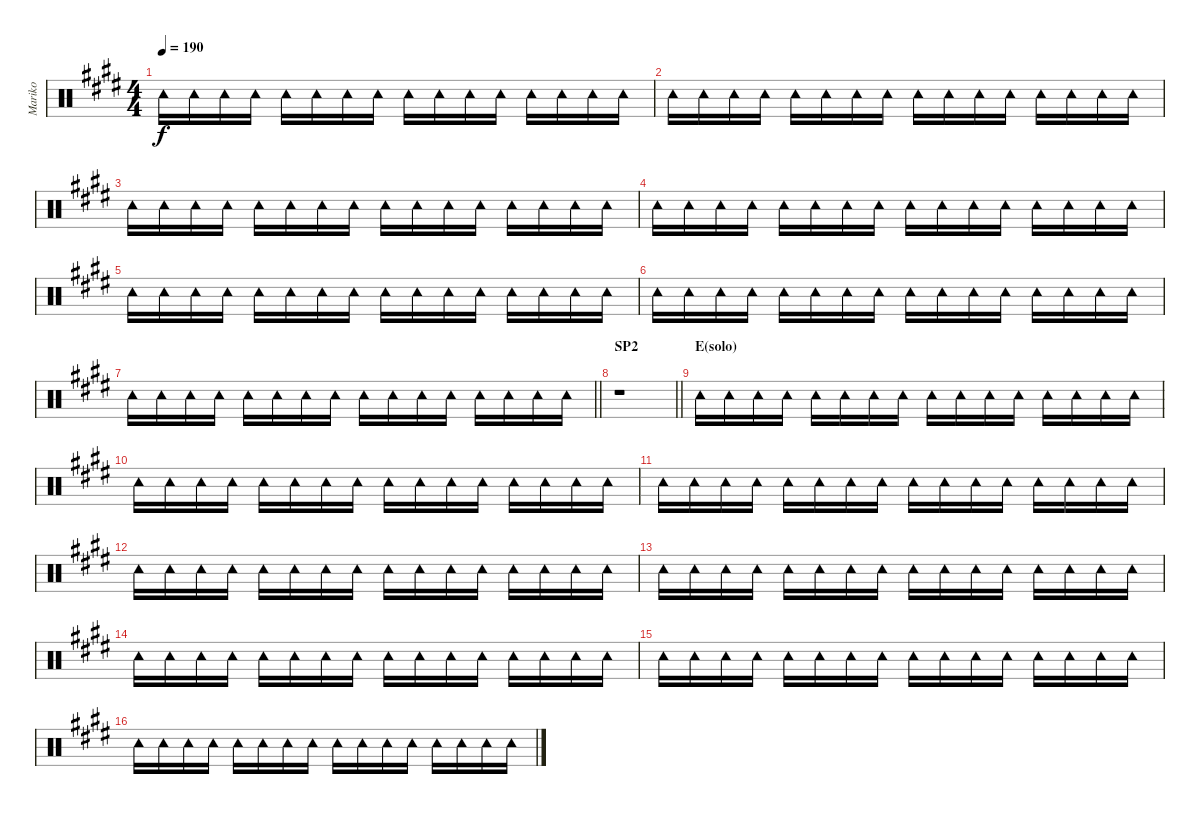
\track ("Mariko" "Mariko") {mute instrument percussion}
\staff {score}
\articulation defaults
\ts (4 4)
\tempo 190
\clef neutral
\ks e "Tambourine (hit)".16{dy f} "Tambourine (hit)".16 "Tambourine (hit)".16 "Tambourine (hit)".16 "Tambourine (hit)".16 "Tambourine (hit)".16 "Tambourine (hit)".16 "Tambourine (hit)".16 "Tambourine (hit)".16 "Tambourine (hit)".16 "Tambourine (hit)".16 "Tambourine (hit)".16 "Tambourine (hit)".16 "Tambourine (hit)".16 "Tambourine (hit)".16 "Tambourine (hit)".16
|
"Tambourine (hit)".16 "Tambourine (hit)".16 "Tambourine (hit)".16 "Tambourine (hit)".16 "Tambourine (hit)".16 "Tambourine (hit)".16 "Tambourine (hit)".16 "Tambourine (hit)".16 "Tambourine (hit)".16 "Tambourine (hit)".16 "Tambourine (hit)".16 "Tambourine (hit)".16 "Tambourine (hit)".16 "Tambourine (hit)".16 "Tambourine (hit)".16 "Tambourine (hit)".16 |
"Tambourine (hit)".16 "Tambourine (hit)".16 "Tambourine (hit)".16 "Tambourine (hit)".16 "Tambourine (hit)".16 "Tambourine (hit)".16 "Tambourine (hit)".16 "Tambourine (hit)".16 "Tambourine (hit)".16 "Tambourine (hit)".16 "Tambourine (hit)".16 "Tambourine (hit)".16 "Tambourine (hit)".16 "Tambourine (hit)".16 "Tambourine (hit)".16 "Tambourine (hit)".16 |
"Tambourine (hit)".16 "Tambourine (hit)".16 "Tambourine (hit)".16 "Tambourine (hit)".16 "Tambourine (hit)".16 "Tambourine (hit)".16 "Tambourine (hit)".16 "Tambourine (hit)".16 "Tambourine (hit)".16 "Tambourine (hit)".16 "Tambourine (hit)".16 "Tambourine (hit)".16 "Tambourine (hit)".16 "Tambourine (hit)".16 "Tambourine (hit)".16 "Tambourine (hit)".16 |
"Tambourine (hit)".16 "Tambourine (hit)".16 "Tambourine (hit)".16 "Tambourine (hit)".16 "Tambourine (hit)".16 "Tambourine (hit)".16 "Tambourine (hit)".16 "Tambourine (hit)".16 "Tambourine (hit)".16 "Tambourine (hit)".16 "Tambourine (hit)".16 "Tambourine (hit)".16 "Tambourine (hit)".16 "Tambourine (hit)".16 "Tambourine (hit)".16 "Tambourine (hit)".16 |
"Tambourine (hit)".16 "Tambourine (hit)".16 "Tambourine (hit)".16 "Tambourine (hit)".16 "Tambourine (hit)".16 "Tambourine (hit)".16 "Tambourine (hit)".16 "Tambourine (hit)".16 "Tambourine (hit)".16 "Tambourine (hit)".16 "Tambourine (hit)".16 "Tambourine (hit)".16 "Tambourine (hit)".16 "Tambourine (hit)".16 "Tambourine (hit)".16 "Tambourine (hit)".16 |
\barLineRight lightlight "Tambourine (hit)".16 "Tambourine (hit)".16 "Tambourine (hit)".16 "Tambourine (hit)".16 "Tambourine (hit)".16 "Tambourine (hit)".16 "Tambourine (hit)".16 "Tambourine (hit)".16 "Tambourine (hit)".16 "Tambourine (hit)".16 "Tambourine (hit)".16 "Tambourine (hit)".16 "Tambourine (hit)".16 "Tambourine (hit)".16 "Tambourine (hit)".16 "Tambourine (hit)".16
|
\section ("" "SP2")
\barLineRight lightlight
r.1 |
\section ("" "E(solo)")
"Tambourine (hit)".16 "Tambourine (hit)".16 "Tambourine (hit)".16 "Tambourine (hit)".16 "Tambourine (hit)".16 "Tambourine (hit)".16 "Tambourine (hit)".16 "Tambourine (hit)".16 "Tambourine (hit)".16 "Tambourine (hit)".16 "Tambourine (hit)".16 "Tambourine (hit)".16 "Tambourine (hit)".16 "Tambourine (hit)".16 "Tambourine (hit)".16 "Tambourine (hit)".16 |
"Tambourine (hit)".16 "Tambourine (hit)".16 "Tambourine (hit)".16 "Tambourine (hit)".16 "Tambourine (hit)".16 "Tambourine (hit)".16 "Tambourine (hit)".16 "Tambourine (hit)".16 "Tambourine (hit)".16 "Tambourine (hit)".16 "Tambourine (hit)".16 "Tambourine (hit)".16 "Tambourine (hit)".16 "Tambourine (hit)".16 "Tambourine (hit)".16 "Tambourine (hit)".16 |
"Tambourine (hit)".16 "Tambourine (hit)".16 "Tambourine (hit)".16 "Tambourine (hit)".16 "Tambourine (hit)".16 "Tambourine (hit)".16 "Tambourine (hit)".16 "Tambourine (hit)".16 "Tambourine (hit)".16 "Tambourine (hit)".16 "Tambourine (hit)".16 "Tambourine (hit)".16 "Tambourine (hit)".16 "Tambourine (hit)".16 "Tambourine (hit)".16 "Tambourine (hit)".16 |
"Tambourine (hit)".16 "Tambourine (hit)".16 "Tambourine (hit)".16 "Tambourine (hit)".16 "Tambourine (hit)".16 "Tambourine (hit)".16 "Tambourine (hit)".16 "Tambourine (hit)".16 "Tambourine (hit)".16 "Tambourine (hit)".16 "Tambourine (hit)".16 "Tambourine (hit)".16 "Tambourine (hit)".16 "Tambourine (hit)".16 "Tambourine (hit)".16 "Tambourine (hit)".16 |
"Tambourine (hit)".16 "Tambourine (hit)".16 "Tambourine (hit)".16 "Tambourine (hit)".16 "Tambourine (hit)".16 "Tambourine (hit)".16 "Tambourine (hit)".16 "Tambourine (hit)".16 "Tambourine (hit)".16 "Tambourine (hit)".16 "Tambourine (hit)".16 "Tambourine (hit)".16 "Tambourine (hit)".16 "Tambourine (hit)".16 "Tambourine (hit)".16 "Tambourine (hit)".16 |
"Tambourine (hit)".16 "Tambourine (hit)".16 "Tambourine (hit)".16 "Tambourine (hit)".16 "Tambourine (hit)".16 "Tambourine (hit)".16 "Tambourine (hit)".16 "Tambourine (hit)".16 "Tambourine (hit)".16 "Tambourine (hit)".16 "Tambourine (hit)".16 "Tambourine (hit)".16 "Tambourine (hit)".16 "Tambourine (hit)".16 "Tambourine (hit)".16 "Tambourine (hit)".16 |
"Tambourine (hit)".16 "Tambourine (hit)".16 "Tambourine (hit)".16 "Tambourine (hit)".16 "Tambourine (hit)".16 "Tambourine (hit)".16 "Tambourine (hit)".16 "Tambourine (hit)".16 "Tambourine (hit)".16 "Tambourine (hit)".16 "Tambourine (hit)".16 "Tambourine (hit)".16 "Tambourine (hit)".16 "Tambourine (hit)".16 "Tambourine (hit)".16 "Tambourine (hit)".16 |
"Tambourine (hit)".16 "Tambourine (hit)".16 "Tambourine (hit)".16 "Tambourine (hit)".16 "Tambourine (hit)".16 "Tambourine (hit)".16 "Tambourine (hit)".16 "Tambourine (hit)".16 "Tambourine (hit)".16 "Tambourine (hit)".16 "Tambourine (hit)".16 "Tambourine (hit)".16 "Tambourine (hit)".16 "Tambourine (hit)".16 "Tambourine (hit)".16 "Tambourine (hit)".16
